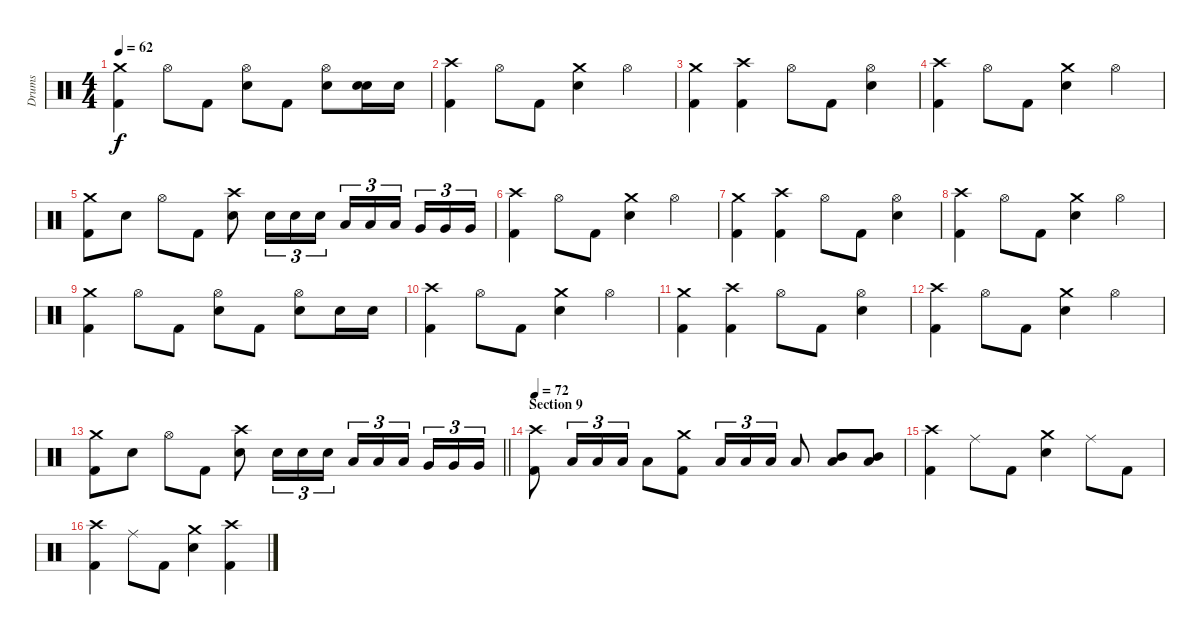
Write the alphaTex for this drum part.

\track ("Drums" "Drums") {instrument percussion}
\staff {score}
\articulation defaults
\ts (4 4)
\tempo 62
\clef neutral
\ks c
("Crash medium (hit)" "Kick (hit) 2").4{dy f} "Hi-Hat (open)".8 "Kick (hit) 2".8 ("Hi-Hat (open)" "Electric Snare (hit)").8 "Kick (hit) 2".8 ("Hi-Hat (open)" "Electric Snare (hit)").8 ("Electric Snare (hit)" "Electric Snare (hit)").16{bu 60} "Electric Snare (hit)".16 |
("Crash high (hit)" "Kick (hit) 2").4 "Hi-Hat (open)".8 "Kick (hit) 2".8 ("Crash medium (hit)" "Electric Snare (hit)").4 "Hi-Hat (open)".4 |
("Crash medium (hit)" "Kick (hit) 2").4 ("Crash high (hit)" "Kick (hit) 2").4 "Hi-Hat (open)".8 "Kick (hit) 2".8 ("Hi-Hat (open)" "Electric Snare (hit)").4 |
("Crash high (hit)" "Kick (hit) 2").4 "Hi-Hat (open)".8 "Kick (hit) 2".8 ("Crash medium (hit)" "Electric Snare (hit)").4 "Hi-Hat (open)".4 |
("Crash medium (hit)" "Kick (hit) 2").8 "Electric Snare (hit)".8 "Hi-Hat (open)".8 "Kick (hit) 2".8 ("Crash high (hit)" "Electric Snare (hit)").8 "Electric Snare (hit)".16{tu (3 2)} "Electric Snare (hit)".16{tu (3 2)} "Electric Snare (hit)".16{tu (3 2)} "Low Tom (hit)".16{tu (3 2)} "Low Tom (hit)".16{tu (3 2)} "Low Tom (hit)".16{tu (3 2) beam splitsecondary} "Very Low Tom (hit)".16{tu (3 2)} "Very Low Tom (hit)".16{tu (3 2)} "Very Low Tom (hit)".16{tu (3 2)} |
("Crash high (hit)" "Kick (hit) 2").4 "Hi-Hat (open)".8 "Kick (hit) 2".8 ("Crash medium (hit)" "Electric Snare (hit)").4 "Hi-Hat (open)".4 |
("Crash medium (hit)" "Kick (hit) 2").4 ("Crash high (hit)" "Kick (hit) 2").4 "Hi-Hat (open)".8 "Kick (hit) 2".8 ("Hi-Hat (open)" "Electric Snare (hit)").4 |
("Crash high (hit)" "Kick (hit) 2").4 "Hi-Hat (open)".8 "Kick (hit) 2".8 ("Crash medium (hit)" "Electric Snare (hit)").4 "Hi-Hat (open)".4 |
("Crash medium (hit)" "Kick (hit) 2").4 "Hi-Hat (open)".8 "Kick (hit) 2".8 ("Hi-Hat (open)" "Electric Snare (hit)").8 "Kick (hit) 2".8 ("Hi-Hat (open)" "Electric Snare (hit)").8 "Electric Snare (hit)".16 "Electric Snare (hit)".16 |
("Crash high (hit)" "Kick (hit) 2").4 "Hi-Hat (open)".8 "Kick (hit) 2".8 ("Crash medium (hit)" "Electric Snare (hit)").4 "Hi-Hat (open)".4 |
("Crash medium (hit)" "Kick (hit) 2").4 ("Crash high (hit)" "Kick (hit) 2").4 "Hi-Hat (open)".8 "Kick (hit) 2".8 ("Hi-Hat (open)" "Electric Snare (hit)").4 |
("Crash high (hit)" "Kick (hit) 2").4 "Hi-Hat (open)".8 "Kick (hit) 2".8 ("Crash medium (hit)" "Electric Snare (hit)").4 "Hi-Hat (open)".4 |
\barLineRight lightlight
("Crash medium (hit)" "Kick (hit) 2").8 "Electric Snare (hit)".8 "Hi-Hat (open)".8 "Kick (hit) 2".8 ("Crash high (hit)" "Electric Snare (hit)").8 "Electric Snare (hit)".16{tu (3 2)} "Electric Snare (hit)".16{tu (3 2)} "Electric Snare (hit)".16{tu (3 2)} "Low Tom (hit)".16{tu (3 2)} "Low Tom (hit)".16{tu (3 2)} "Low Tom (hit)".16{tu (3 2) beam splitsecondary} "Very Low Tom (hit)".16{tu (3 2)} "Very Low Tom (hit)".16{tu (3 2)} "Very Low Tom (hit)".16{tu (3 2)} |
\section ("" "Section 9")
\tempo 72
("Crash high (hit)" "Kick (hit) 2").8 "Low Tom (hit)".16{tu (3 2)} "Low Tom (hit)".16{tu (3 2)} "Low Tom (hit)".16{tu (3 2)} "Low Tom (hit)".8 ("Crash medium (hit)" "Kick (hit) 2").8 "Low Tom (hit)".16{tu (3 2)} "Low Tom (hit)".16{tu (3 2)} "Low Tom (hit)".16{tu (3 2)} "Low Tom (hit)".8 ("Mid Tom (hit)" "Low Tom (hit)").8{bu 60} ("Mid Tom (hit)" "Low Tom (hit)").8{bu 60} |
("Crash high (hit)" "Kick (hit) 2").4 "Ride (middle)".8 "Kick (hit) 2".8 ("Crash medium (hit)" "Electric Snare (hit)").4 "Ride (middle)".8 "Kick (hit) 2".8 |
("Crash high (hit)" "Kick (hit) 2").4 "Ride (middle)".8 "Kick (hit) 2".8 ("Crash medium (hit)" "Electric Snare (hit)").4 ("Crash high (hit)" "Kick (hit) 2").4
